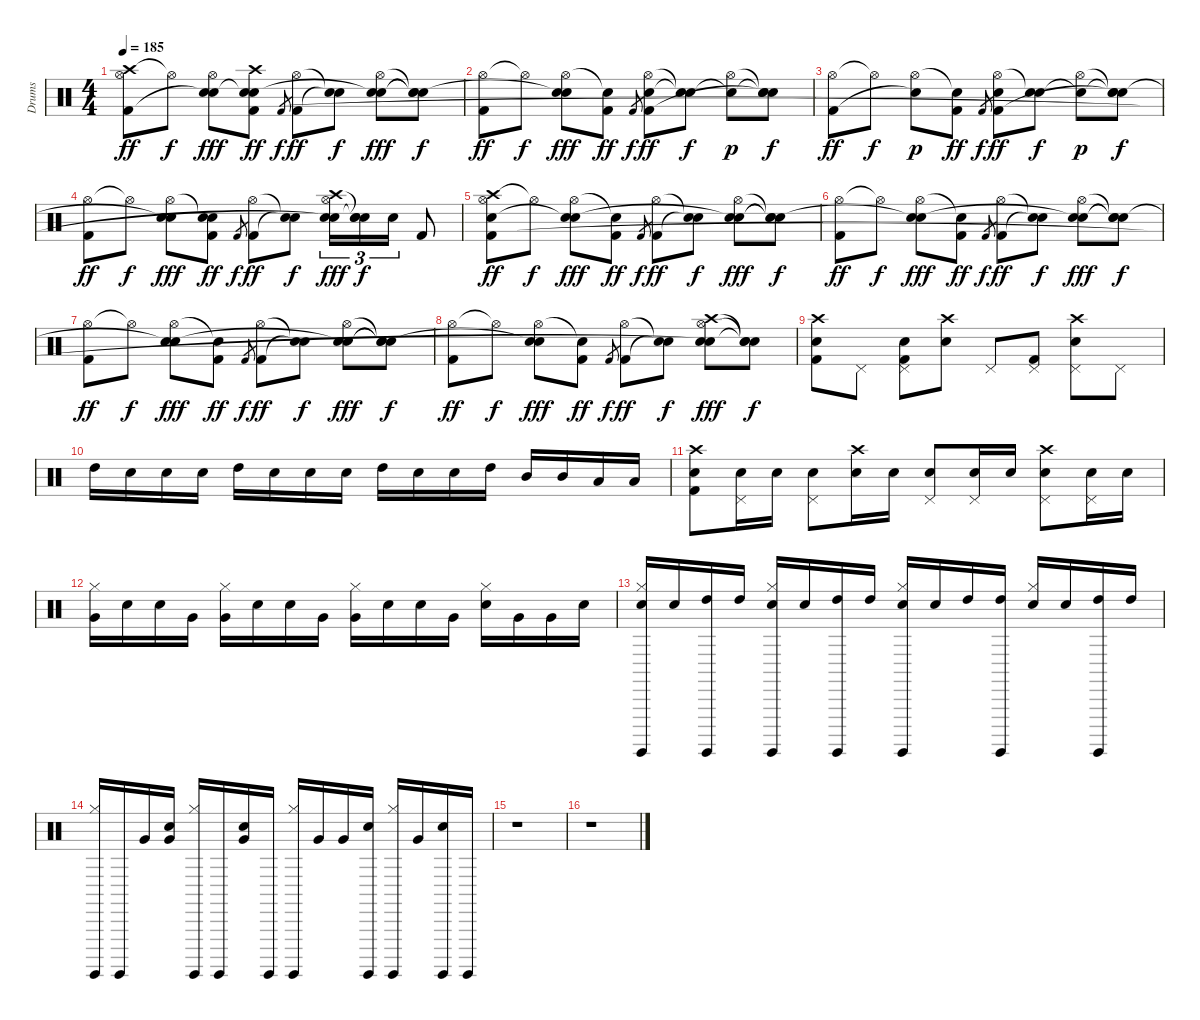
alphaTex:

\track ("Drums" "Drums") {instrument percussion}
\staff {score}
\articulation defaults
\ts (4 4)
\tempo 185
\clef neutral
\ks c
("Crash high (hit)" "Hi-Hat (open)" "Kick (hit) 2").8{dy ff} "Hi-Hat (open)"{t}.8{dy f} ("Hi-Hat (open)" "Electric Snare (hit)" "Snare (hit)"{t}).8{dy fff} ("Crash high (hit)" "Snare (hit)"{t} "Electric Snare (hit)" "Kick (hit) 2").8{dy ff} "Kick (hit) 2".8{gr dy f} ("Hi-Hat (open)" "Kick (hit) 2").8{dy ff} ("Snare (hit)"{t} "Snare (hit)"{t}).8{dy f} ("Hi-Hat (open)" "Electric Snare (hit)" "Snare (hit)"{t}).8{dy fff} ("Snare (hit)"{t} "Snare (hit)"{t} "Snare (hit)"{t}).8{dy f} |
("Hi-Hat (open)" "Kick (hit) 2").8{dy ff} "Hi-Hat (open)"{t}.8{dy f} ("Hi-Hat (open)" "Electric Snare (hit)" "Snare (hit)"{t}).8{dy fff} ("Snare (hit)"{t} "Kick (hit) 2").8{dy ff} "Kick (hit) 2".8{gr dy f} ("Hi-Hat (open)" "Electric Snare (hit)" "Kick (hit) 2").8{dy ff} ("Snare (hit)"{t} "Snare (hit)"{t}).8{dy f} ("Hi-Hat (open)" "Snare (hit)"{t}).8{dy p} ("Snare (hit)"{t} "Snare (hit)"{t} "Snare (hit)"{t}).8{dy f} |
("Hi-Hat (open)" "Kick (hit) 2").8{dy ff} "Hi-Hat (open)"{t}.8{dy f} ("Hi-Hat (open)" "Snare (hit)"{t}).8{dy p} ("Snare (hit)"{t} "Kick (hit) 2").8{dy ff} "Kick (hit) 2".8{gr dy f} ("Hi-Hat (open)" "Electric Snare (hit)" "Kick (hit) 2").8{dy ff} ("Snare (hit)"{t} "Electric Snare (hit)").8{dy f} ("Hi-Hat (open)" "Snare (hit)"{t}).8{dy p} ("Snare (hit)"{t} "Snare (hit)"{t} "Snare (hit)"{t}).8{dy f} |
("Hi-Hat (open)" "Kick (hit) 2").8{dy ff} "Hi-Hat (open)"{t}.8{dy f} ("Hi-Hat (open)" "Electric Snare (hit)" "Snare (hit)"{t}).8{dy fff} ("Snare (hit)"{t} "Electric Snare (hit)" "Kick (hit) 2").8{dy ff} "Kick (hit) 2".8{gr dy f} ("Hi-Hat (open)" "Kick (hit) 2").8{dy ff} ("Snare (hit)"{t} "Snare (hit)"{t}).8{dy f} ("Crash high (hit)" "Hi-Hat (open)" "Electric Snare (hit)" "Snare (hit)"{t}).16{tu (3 2) dy fff} ("Snare (hit)"{t} "Electric Snare (hit)" "Snare (hit)"{t}).16{tu (3 2) dy f} "Electric Snare (hit)".16{tu (3 2)} "Kick (hit) 2".8 |
("Crash high (hit)" "Hi-Hat (open)" "Electric Snare (hit)" "Kick (hit) 2").8{dy ff} "Hi-Hat (open)"{t}.8{dy f} ("Hi-Hat (open)" "Electric Snare (hit)" "Snare (hit)"{t}).8{dy fff} ("Snare (hit)"{t} "Kick (hit) 2").8{dy ff} "Kick (hit) 2".8{gr dy f} ("Hi-Hat (open)" "Kick (hit) 2").8{dy ff} ("Snare (hit)"{t} "Snare (hit)"{t}).8{dy f} ("Hi-Hat (open)" "Electric Snare (hit)" "Snare (hit)"{t}).8{dy fff} ("Snare (hit)"{t} "Snare (hit)"{t} "Snare (hit)"{t}).8{dy f} |
("Hi-Hat (open)" "Kick (hit) 2").8{dy ff} "Hi-Hat (open)"{t}.8{dy f} ("Hi-Hat (open)" "Electric Snare (hit)" "Snare (hit)"{t}).8{dy fff} ("Snare (hit)"{t} "Kick (hit) 2").8{dy ff} "Kick (hit) 2".8{gr dy f} ("Hi-Hat (open)" "Kick (hit) 2").8{dy ff} ("Snare (hit)"{t} "Snare (hit)"{t}).8{dy f} ("Hi-Hat (open)" "Electric Snare (hit)" "Snare (hit)"{t}).8{dy fff} ("Snare (hit)"{t} "Snare (hit)"{t} "Snare (hit)"{t}).8{dy f} |
("Hi-Hat (open)" "Kick (hit) 2").8{dy ff} "Hi-Hat (open)"{t}.8{dy f} ("Hi-Hat (open)" "Electric Snare (hit)" "Snare (hit)"{t}).8{dy fff} ("Snare (hit)"{t} "Kick (hit) 2").8{dy ff} "Kick (hit) 2".8{gr dy f} ("Hi-Hat (open)" "Kick (hit) 2").8{dy ff} ("Snare (hit)"{t} "Snare (hit)"{t}).8{dy f} ("Hi-Hat (open)" "Electric Snare (hit)" "Snare (hit)"{t}).8{dy fff} ("Snare (hit)"{t} "Snare (hit)"{t} "Snare (hit)"{t}).8{dy f} |
("Hi-Hat (open)" "Kick (hit) 2").8{dy ff} "Hi-Hat (open)"{t}.8{dy f} ("Hi-Hat (open)" "Electric Snare (hit)" "Snare (hit)"{t}).8{dy fff} ("Snare (hit)"{t} "Kick (hit) 2").8{dy ff} "Kick (hit) 2".8{gr dy f} ("Hi-Hat (open)" "Kick (hit) 2").8{dy ff} ("Snare (hit)"{t} "Snare (hit)"{t}).8{dy f} ("Crash high (hit)" "Hi-Hat (open)" "Electric Snare (hit)" "Snare (hit)"{t}).8{dy fff} ("Snare (hit)"{t} "Snare (hit)"{t} "Snare (hit)"{t}).8{dy f} |
("Crash high (hit)" "Electric Snare (hit)" "Kick (hit) 2").8 "Pedal Hi-Hat (hit)".8 ("Pedal Hi-Hat (hit)" "Electric Snare (hit)" "Kick (hit) 2").8 ("Crash high (hit)" "Electric Snare (hit)").8 "Pedal Hi-Hat (hit)".8 ("Pedal Hi-Hat (hit)" "Kick (hit) 2").8 ("Crash high (hit)" "Pedal Hi-Hat (hit)" "Electric Snare (hit)").8 "Pedal Hi-Hat (hit)".8 |
"High Tom (hit)".16 "Electric Snare (hit)".16 "Electric Snare (hit)".16 "Electric Snare (hit)".16 "High Tom (hit)".16 "Electric Snare (hit)".16 "Electric Snare (hit)".16 "Electric Snare (hit)".16 "High Tom (hit)".16 "Electric Snare (hit)".16 "Electric Snare (hit)".16 "High Tom (hit)".16 "Mid Tom (hit)".16 "Mid Tom (hit)".16 "Low Tom (hit)".16 "Low Tom (hit)".16 |
("Crash high (hit)" "Electric Snare (hit)" "Kick (hit) 2").8 ("Pedal Hi-Hat (hit)" "Electric Snare (hit)").16 "Electric Snare (hit)".16 ("Pedal Hi-Hat (hit)" "Electric Snare (hit)").8 ("Crash high (hit)" "Electric Snare (hit)").16 "Electric Snare (hit)".16 ("Pedal Hi-Hat (hit)" "Electric Snare (hit)").8 ("Pedal Hi-Hat (hit)" "Electric Snare (hit)").16 "Electric Snare (hit)".16 ("Crash high (hit)" "Pedal Hi-Hat (hit)" "Electric Snare (hit)").8 ("Pedal Hi-Hat (hit)" "Electric Snare (hit)").16 "Electric Snare (hit)".16 |
("Hi-Hat (closed)" "Very Low Tom (hit)").16 "Electric Snare (hit)".16 "Electric Snare (hit)".16 "Very Low Tom (hit)".16 ("Hi-Hat (closed)" "Very Low Tom (hit)").16 "Electric Snare (hit)".16 "Electric Snare (hit)".16 "Very Low Tom (hit)".16 ("Hi-Hat (closed)" "Very Low Tom (hit)").16 "Electric Snare (hit)".16 "Electric Snare (hit)".16 "Very Low Tom (hit)".16 ("Hi-Hat (closed)" "Electric Snare (hit)").16 "Very Low Tom (hit)".16 "Very Low Tom (hit)".16 "Electric Snare (hit)".16 |
("Hi-Hat (closed)" "Electric Snare (hit)" "Surdo (hit)").16 "Electric Snare (hit)".16 ("High Tom (hit)" "Surdo (hit)").16 "High Tom (hit)".16 ("Hi-Hat (closed)" "Electric Snare (hit)" "Surdo (hit)").16 "Electric Snare (hit)".16 ("High Tom (hit)" "Surdo (hit)").16 "High Tom (hit)".16 ("Hi-Hat (closed)" "Electric Snare (hit)" "Surdo (hit)").16 "Electric Snare (hit)".16 "High Tom (hit)".16 ("High Tom (hit)" "Surdo (hit)").16 ("Hi-Hat (closed)" "Electric Snare (hit)").16 "Electric Snare (hit)".16 ("High Tom (hit)" "Surdo (hit)").16 "High Tom (hit)".16 |
("Hi-Hat (closed)" "Surdo (hit)").16 "Surdo (hit)".16 "Very Low Tom (hit)".16 ("Electric Snare (hit)" "Very Low Tom (hit)").16 ("Hi-Hat (closed)" "Surdo (hit)").16 "Surdo (hit)".16 ("Electric Snare (hit)" "Very Low Tom (hit)").16 "Surdo (hit)".16 ("Hi-Hat (closed)" "Surdo (hit)").16 "Very Low Tom (hit)".16 "Very Low Tom (hit)".16 ("Electric Snare (hit)" "Surdo (hit)").16 ("Hi-Hat (closed)" "Surdo (hit)").16 "Very Low Tom (hit)".16 ("Electric Snare (hit)" "Surdo (hit)").16 "Surdo (hit)".16 |
r.1 |
r.1
